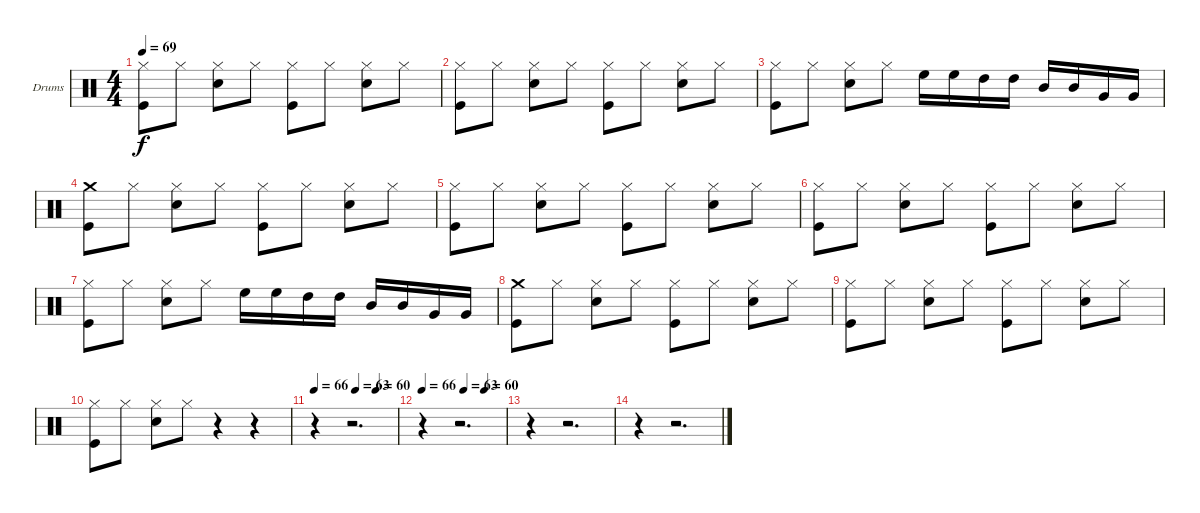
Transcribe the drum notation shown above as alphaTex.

\bracketExtendMode groupsimilarinstruments
\firstSystemTrackNameOrientation horizontal
\otherSystemsTrackNameOrientation horizontal
\track ("Drumkit" "Drums") {instrument percussion}
\staff {score}
\articulation defaults
\ts (4 4)
\tempo 69
\clef neutral
\ks c
("Hi-Hat (closed)" "Kick (hit)").8{dy f} "Hi-Hat (closed)".8 ("Hi-Hat (closed)" "Snare (hit) 2").8 "Hi-Hat (closed)".8 ("Hi-Hat (closed)" "Kick (hit)").8 "Hi-Hat (closed)".8 ("Hi-Hat (closed)" "Snare (hit) 2").8 "Hi-Hat (closed)".8 |
("Hi-Hat (closed)" "Kick (hit)").8 "Hi-Hat (closed)".8 ("Hi-Hat (closed)" "Snare (hit) 2").8 "Hi-Hat (closed)".8 ("Hi-Hat (closed)" "Kick (hit)").8 "Hi-Hat (closed)".8 ("Hi-Hat (closed)" "Snare (hit) 2").8 "Hi-Hat (closed)".8 |
("Hi-Hat (closed)" "Kick (hit)").8 "Hi-Hat (closed)".8 ("Hi-Hat (closed)" "Snare (hit) 2").8 "Hi-Hat (closed)".8 "High Floor Tom (hit)".16 "High Floor Tom (hit)".16 "High Tom (hit)".16 "High Tom (hit)".16 "Mid Tom (hit)".16 "Mid Tom (hit)".16 "Very Low Tom (hit)".16 "Very Low Tom (hit)".16 |
("Crash medium (hit)" "Kick (hit)").8 "Hi-Hat (closed)".8 ("Hi-Hat (closed)" "Snare (hit) 2").8 "Hi-Hat (closed)".8 ("Hi-Hat (closed)" "Kick (hit)").8 "Hi-Hat (closed)".8 ("Hi-Hat (closed)" "Snare (hit) 2").8 "Hi-Hat (closed)".8 |
("Hi-Hat (closed)" "Kick (hit)").8 "Hi-Hat (closed)".8 ("Hi-Hat (closed)" "Snare (hit) 2").8 "Hi-Hat (closed)".8 ("Hi-Hat (closed)" "Kick (hit)").8 "Hi-Hat (closed)".8 ("Hi-Hat (closed)" "Snare (hit) 2").8 "Hi-Hat (closed)".8 |
("Hi-Hat (closed)" "Kick (hit)").8 "Hi-Hat (closed)".8 ("Hi-Hat (closed)" "Snare (hit) 2").8 "Hi-Hat (closed)".8 ("Hi-Hat (closed)" "Kick (hit)").8 "Hi-Hat (closed)".8 ("Hi-Hat (closed)" "Snare (hit) 2").8 "Hi-Hat (closed)".8 |
("Hi-Hat (closed)" "Kick (hit)").8 "Hi-Hat (closed)".8 ("Hi-Hat (closed)" "Snare (hit) 2").8 "Hi-Hat (closed)".8 "High Floor Tom (hit)".16 "High Floor Tom (hit)".16 "High Tom (hit)".16 "High Tom (hit)".16 "Mid Tom (hit)".16 "Mid Tom (hit)".16 "Very Low Tom (hit)".16 "Very Low Tom (hit)".16 |
("Crash medium (hit)" "Kick (hit)").8 "Hi-Hat (closed)".8 ("Hi-Hat (closed)" "Snare (hit) 2").8 "Hi-Hat (closed)".8 ("Hi-Hat (closed)" "Kick (hit)").8 "Hi-Hat (closed)".8 ("Hi-Hat (closed)" "Snare (hit) 2").8 "Hi-Hat (closed)".8 |
("Hi-Hat (closed)" "Kick (hit)").8 "Hi-Hat (closed)".8 ("Hi-Hat (closed)" "Snare (hit) 2").8 "Hi-Hat (closed)".8 ("Hi-Hat (closed)" "Kick (hit)").8 "Hi-Hat (closed)".8 ("Hi-Hat (closed)" "Snare (hit) 2").8 "Hi-Hat (closed)".8 |
("Hi-Hat (closed)" "Kick (hit)").8 "Hi-Hat (closed)".8 ("Hi-Hat (closed)" "Snare (hit) 2").8 "Hi-Hat (closed)".8 r.4 r.4 |
\tempo 66
\tempo (63 0.5)
\tempo (60 0.75)
r.4 r.2{d} |
\tempo 66
\tempo (63 0.5)
\tempo (60 0.75)
r.4 r.2{d} |
r.4 r.2{d} |
r.4 r.2{d}
